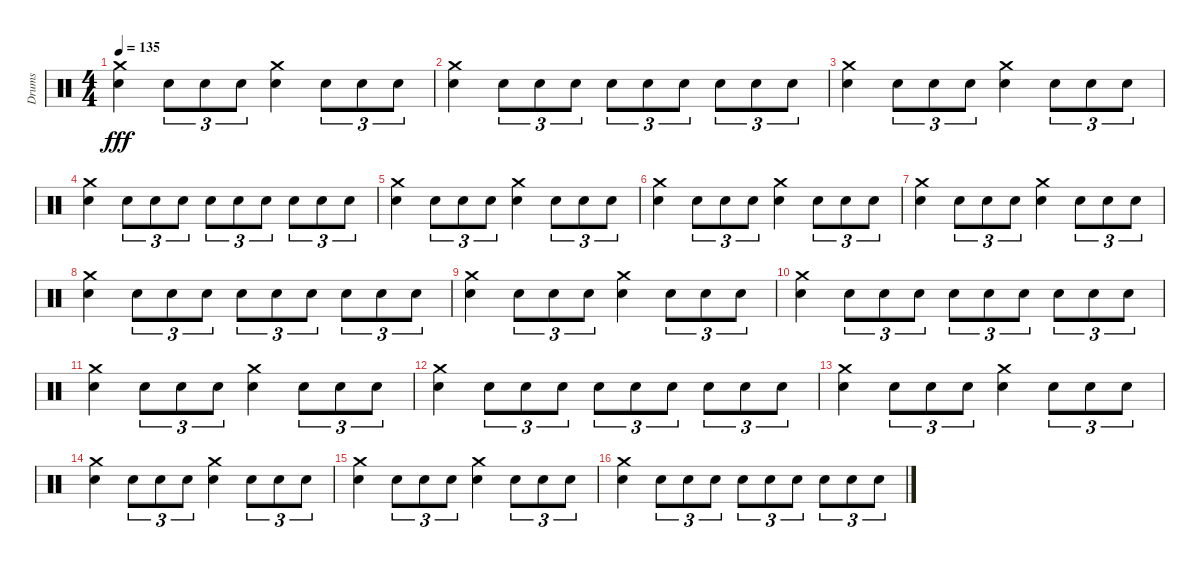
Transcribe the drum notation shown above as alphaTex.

\track ("Drums" "Drums") {instrument percussion}
\staff {score}
\articulation defaults
\ts (4 4)
\tempo 135
\clef neutral
\ks c
("Electric Snare (hit)" "Crash medium (hit)").4{dy fff} "Electric Snare (hit)".8{tu (3 2)} "Electric Snare (hit)".8{tu (3 2)} "Electric Snare (hit)".8{tu (3 2)} ("Electric Snare (hit)" "Crash medium (hit)").4 "Electric Snare (hit)".8{tu (3 2)} "Electric Snare (hit)".8{tu (3 2)} "Electric Snare (hit)".8{tu (3 2)} |
("Electric Snare (hit)" "Crash medium (hit)").4 "Electric Snare (hit)".8{tu (3 2)} "Electric Snare (hit)".8{tu (3 2)} "Electric Snare (hit)".8{tu (3 2)} "Electric Snare (hit)".8{tu (3 2)} "Electric Snare (hit)".8{tu (3 2)} "Electric Snare (hit)".8{tu (3 2)} "Electric Snare (hit)".8{tu (3 2)} "Electric Snare (hit)".8{tu (3 2)} "Electric Snare (hit)".8{tu (3 2)} |
("Electric Snare (hit)" "Crash medium (hit)").4 "Electric Snare (hit)".8{tu (3 2)} "Electric Snare (hit)".8{tu (3 2)} "Electric Snare (hit)".8{tu (3 2)} ("Electric Snare (hit)" "Crash medium (hit)").4 "Electric Snare (hit)".8{tu (3 2)} "Electric Snare (hit)".8{tu (3 2)} "Electric Snare (hit)".8{tu (3 2)} |
("Electric Snare (hit)" "Crash medium (hit)").4 "Electric Snare (hit)".8{tu (3 2)} "Electric Snare (hit)".8{tu (3 2)} "Electric Snare (hit)".8{tu (3 2)} "Electric Snare (hit)".8{tu (3 2)} "Electric Snare (hit)".8{tu (3 2)} "Electric Snare (hit)".8{tu (3 2)} "Electric Snare (hit)".8{tu (3 2)} "Electric Snare (hit)".8{tu (3 2)} "Electric Snare (hit)".8{tu (3 2)} |
("Electric Snare (hit)" "Crash medium (hit)").4 "Electric Snare (hit)".8{tu (3 2)} "Electric Snare (hit)".8{tu (3 2)} "Electric Snare (hit)".8{tu (3 2)} ("Electric Snare (hit)" "Crash medium (hit)").4 "Electric Snare (hit)".8{tu (3 2)} "Electric Snare (hit)".8{tu (3 2)} "Electric Snare (hit)".8{tu (3 2)} |
("Electric Snare (hit)" "Crash medium (hit)").4 "Electric Snare (hit)".8{tu (3 2)} "Electric Snare (hit)".8{tu (3 2)} "Electric Snare (hit)".8{tu (3 2)} ("Electric Snare (hit)" "Crash medium (hit)").4 "Electric Snare (hit)".8{tu (3 2)} "Electric Snare (hit)".8{tu (3 2)} "Electric Snare (hit)".8{tu (3 2)} |
("Electric Snare (hit)" "Crash medium (hit)").4 "Electric Snare (hit)".8{tu (3 2)} "Electric Snare (hit)".8{tu (3 2)} "Electric Snare (hit)".8{tu (3 2)} ("Electric Snare (hit)" "Crash medium (hit)").4 "Electric Snare (hit)".8{tu (3 2)} "Electric Snare (hit)".8{tu (3 2)} "Electric Snare (hit)".8{tu (3 2)} |
("Electric Snare (hit)" "Crash medium (hit)").4 "Electric Snare (hit)".8{tu (3 2)} "Electric Snare (hit)".8{tu (3 2)} "Electric Snare (hit)".8{tu (3 2)} "Electric Snare (hit)".8{tu (3 2)} "Electric Snare (hit)".8{tu (3 2)} "Electric Snare (hit)".8{tu (3 2)} "Electric Snare (hit)".8{tu (3 2)} "Electric Snare (hit)".8{tu (3 2)} "Electric Snare (hit)".8{tu (3 2)} |
("Electric Snare (hit)" "Crash medium (hit)").4 "Electric Snare (hit)".8{tu (3 2)} "Electric Snare (hit)".8{tu (3 2)} "Electric Snare (hit)".8{tu (3 2)} ("Electric Snare (hit)" "Crash medium (hit)").4 "Electric Snare (hit)".8{tu (3 2)} "Electric Snare (hit)".8{tu (3 2)} "Electric Snare (hit)".8{tu (3 2)} |
("Electric Snare (hit)" "Crash medium (hit)").4 "Electric Snare (hit)".8{tu (3 2)} "Electric Snare (hit)".8{tu (3 2)} "Electric Snare (hit)".8{tu (3 2)} "Electric Snare (hit)".8{tu (3 2)} "Electric Snare (hit)".8{tu (3 2)} "Electric Snare (hit)".8{tu (3 2)} "Electric Snare (hit)".8{tu (3 2)} "Electric Snare (hit)".8{tu (3 2)} "Electric Snare (hit)".8{tu (3 2)} |
("Electric Snare (hit)" "Crash medium (hit)").4 "Electric Snare (hit)".8{tu (3 2)} "Electric Snare (hit)".8{tu (3 2)} "Electric Snare (hit)".8{tu (3 2)} ("Electric Snare (hit)" "Crash medium (hit)").4 "Electric Snare (hit)".8{tu (3 2)} "Electric Snare (hit)".8{tu (3 2)} "Electric Snare (hit)".8{tu (3 2)} |
("Electric Snare (hit)" "Crash medium (hit)").4 "Electric Snare (hit)".8{tu (3 2)} "Electric Snare (hit)".8{tu (3 2)} "Electric Snare (hit)".8{tu (3 2)} "Electric Snare (hit)".8{tu (3 2)} "Electric Snare (hit)".8{tu (3 2)} "Electric Snare (hit)".8{tu (3 2)} "Electric Snare (hit)".8{tu (3 2)} "Electric Snare (hit)".8{tu (3 2)} "Electric Snare (hit)".8{tu (3 2)} |
("Electric Snare (hit)" "Crash medium (hit)").4 "Electric Snare (hit)".8{tu (3 2)} "Electric Snare (hit)".8{tu (3 2)} "Electric Snare (hit)".8{tu (3 2)} ("Electric Snare (hit)" "Crash medium (hit)").4 "Electric Snare (hit)".8{tu (3 2)} "Electric Snare (hit)".8{tu (3 2)} "Electric Snare (hit)".8{tu (3 2)} |
("Electric Snare (hit)" "Crash medium (hit)").4 "Electric Snare (hit)".8{tu (3 2)} "Electric Snare (hit)".8{tu (3 2)} "Electric Snare (hit)".8{tu (3 2)} ("Electric Snare (hit)" "Crash medium (hit)").4 "Electric Snare (hit)".8{tu (3 2)} "Electric Snare (hit)".8{tu (3 2)} "Electric Snare (hit)".8{tu (3 2)} |
("Electric Snare (hit)" "Crash medium (hit)").4 "Electric Snare (hit)".8{tu (3 2)} "Electric Snare (hit)".8{tu (3 2)} "Electric Snare (hit)".8{tu (3 2)} ("Electric Snare (hit)" "Crash medium (hit)").4 "Electric Snare (hit)".8{tu (3 2)} "Electric Snare (hit)".8{tu (3 2)} "Electric Snare (hit)".8{tu (3 2)} |
("Electric Snare (hit)" "Crash medium (hit)").4 "Electric Snare (hit)".8{tu (3 2)} "Electric Snare (hit)".8{tu (3 2)} "Electric Snare (hit)".8{tu (3 2)} "Electric Snare (hit)".8{tu (3 2)} "Electric Snare (hit)".8{tu (3 2)} "Electric Snare (hit)".8{tu (3 2)} "Electric Snare (hit)".8{tu (3 2)} "Electric Snare (hit)".8{tu (3 2)} "Electric Snare (hit)".8{tu (3 2)}
